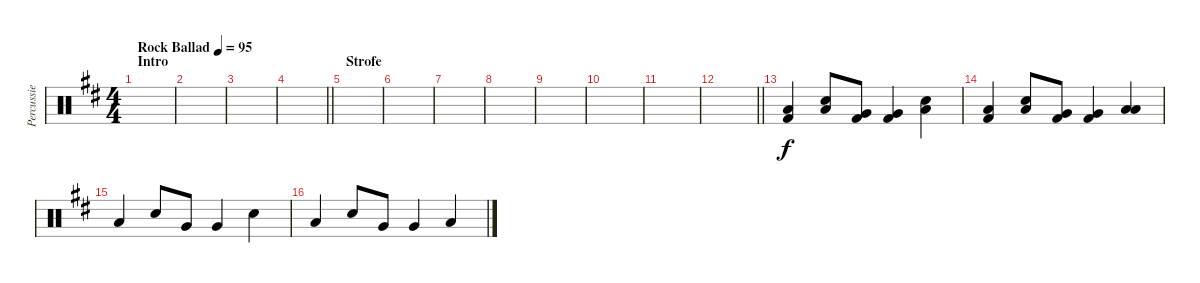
\track ("Percussie" "Percussie") {instrument percussion}
\staff {score}
\articulation defaults
\ts (4 4)
\section ("" "Intro")
\tempo (95 "Rock Ballad")
\clef neutral
\ks d
|
|
|
\barLineRight lightlight
|
\section ("" "Strofe")
|
|
|
|
|
|
|
\barLineRight lightlight
|
("Low Tom (hit)" "Kick (hit) 2").4 ("Electric Snare (hit)" "Low Tom (hit)").8 ("Very Low Tom (hit)" "Kick (hit) 2").8 ("Very Low Tom (hit)" "Kick (hit) 2").4 ("Electric Snare (hit)" "Low Tom (hit)").4 |
("Low Tom (hit)" "Kick (hit) 2").4 ("Electric Snare (hit)" "Low Floor Tom (hit)").8 ("Very Low Tom (hit)" "Kick (hit) 2").8 ("Very Low Tom (hit)" "Kick (hit) 2").4 ("Low Tom (hit)" "Low Floor Tom (hit)").4 |
"Low Tom (hit)".4 "Electric Snare (hit)".8 "Very Low Tom (hit)".8 "Very Low Tom (hit)".4 "Electric Snare (hit)".4 |
"Low Tom (hit)".4 "Electric Snare (hit)".8 "Very Low Tom (hit)".8 "Very Low Tom (hit)".4 "Low Tom (hit)".4
